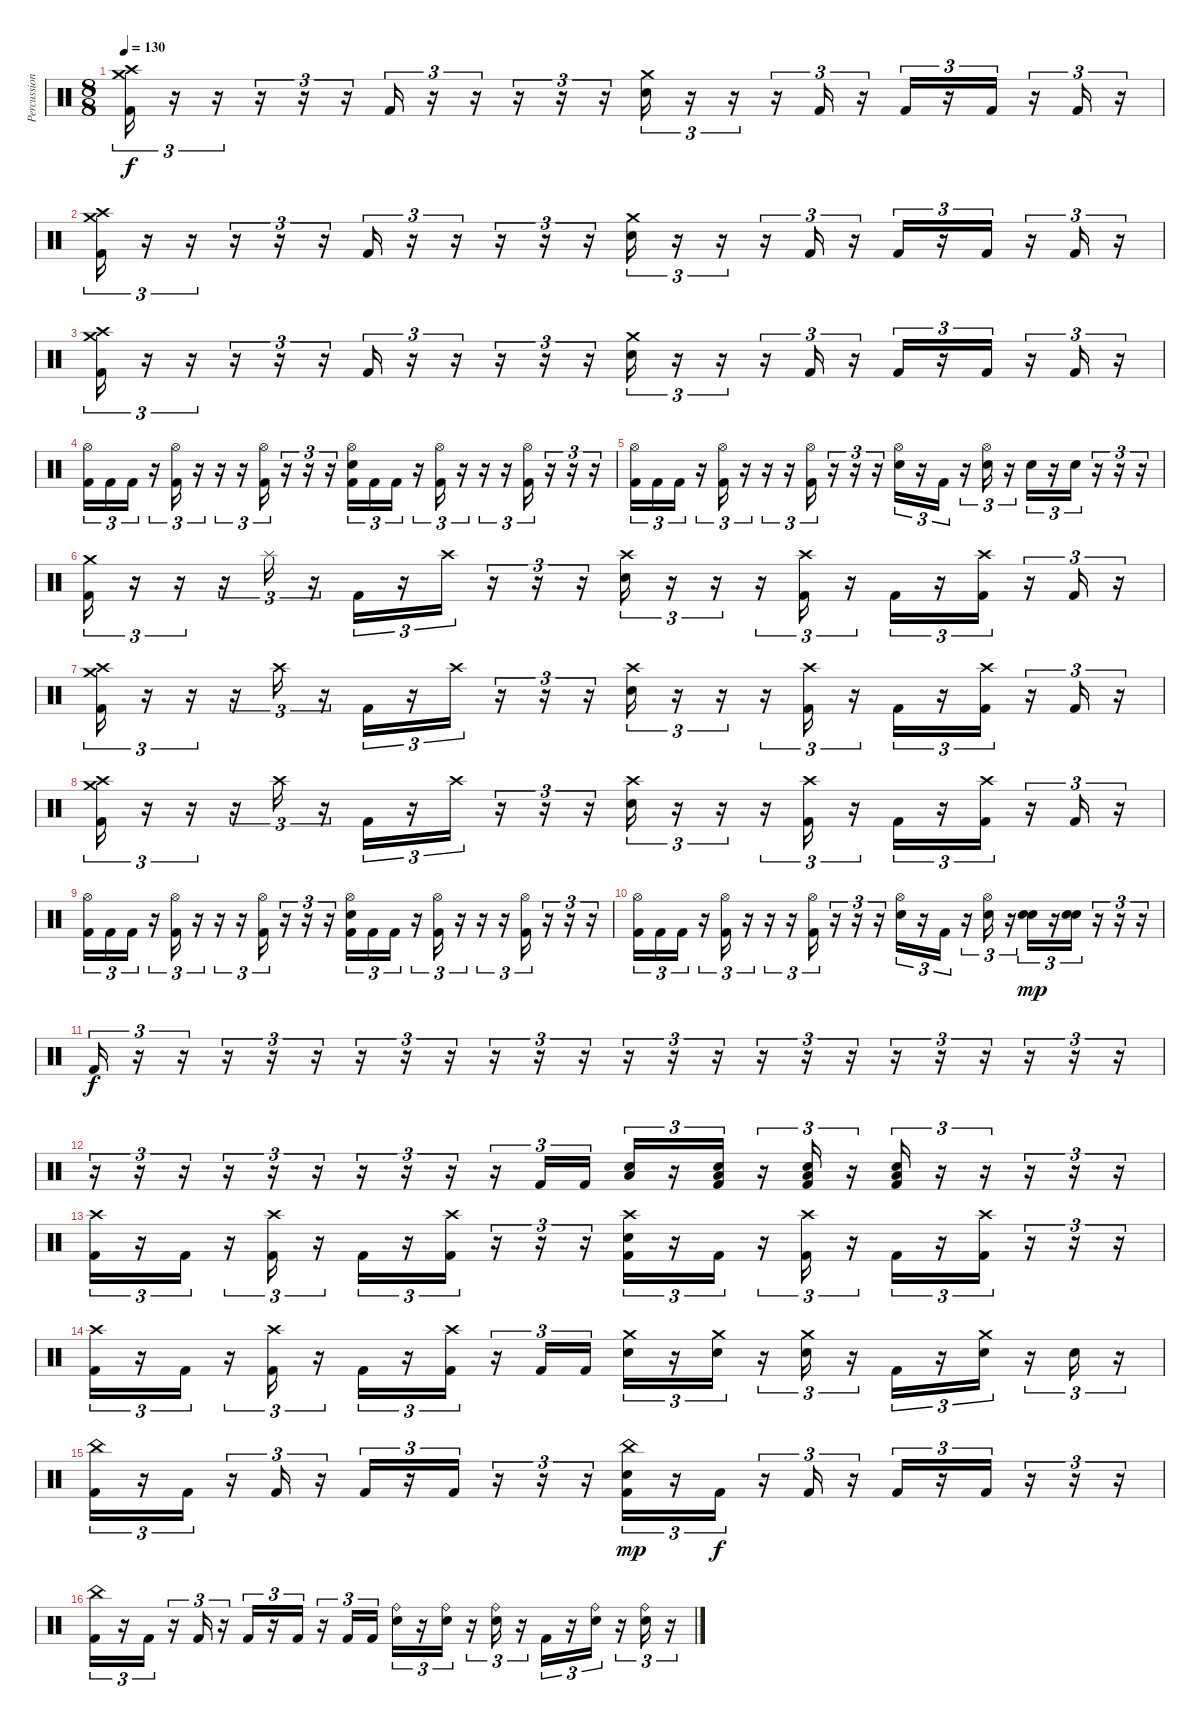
\track ("Percussion" "Percussion") {instrument percussion}
\staff {score}
\articulation defaults
\ts (8 8)
\tempo 130
\clef neutral
\ks c
("Crash high (hit)" "Crash medium (hit)" "Kick (hit) 2").16{tu (3 2) dy f} r.16{tu (3 2)} r.16{tu (3 2)} r.16{tu (3 2)} r.16{tu (3 2)} r.16{tu (3 2)} "Kick (hit) 2".16{tu (3 2)} r.16{tu (3 2)} r.16{tu (3 2)} r.16{tu (3 2)} r.16{tu (3 2)} r.16{tu (3 2)} ("Crash medium (hit)" "Snare (hit) 2").16{tu (3 2)} r.16{tu (3 2)} r.16{tu (3 2)} r.16{tu (3 2)} "Kick (hit) 2".16{tu (3 2)} r.16{tu (3 2)} "Kick (hit) 2".16{tu (3 2)} r.16{tu (3 2)} "Kick (hit) 2".16{tu (3 2)} r.16{tu (3 2)} "Kick (hit) 2".16{tu (3 2)} r.16{tu (3 2)} |
("Crash high (hit)" "Crash medium (hit)" "Kick (hit) 2").16{tu (3 2)} r.16{tu (3 2)} r.16{tu (3 2)} r.16{tu (3 2)} r.16{tu (3 2)} r.16{tu (3 2)} "Kick (hit) 2".16{tu (3 2)} r.16{tu (3 2)} r.16{tu (3 2)} r.16{tu (3 2)} r.16{tu (3 2)} r.16{tu (3 2)} ("Crash medium (hit)" "Snare (hit) 2").16{tu (3 2)} r.16{tu (3 2)} r.16{tu (3 2)} r.16{tu (3 2)} "Kick (hit) 2".16{tu (3 2)} r.16{tu (3 2)} "Kick (hit) 2".16{tu (3 2)} r.16{tu (3 2)} "Kick (hit) 2".16{tu (3 2)} r.16{tu (3 2)} "Kick (hit) 2".16{tu (3 2)} r.16{tu (3 2)} |
("Crash high (hit)" "Crash medium (hit)" "Kick (hit) 2").16{tu (3 2)} r.16{tu (3 2)} r.16{tu (3 2)} r.16{tu (3 2)} r.16{tu (3 2)} r.16{tu (3 2)} "Kick (hit) 2".16{tu (3 2)} r.16{tu (3 2)} r.16{tu (3 2)} r.16{tu (3 2)} r.16{tu (3 2)} r.16{tu (3 2)} ("Crash medium (hit)" "Snare (hit) 2").16{tu (3 2)} r.16{tu (3 2)} r.16{tu (3 2)} r.16{tu (3 2)} "Kick (hit) 2".16{tu (3 2)} r.16{tu (3 2)} "Kick (hit) 2".16{tu (3 2)} r.16{tu (3 2)} "Kick (hit) 2".16{tu (3 2)} r.16{tu (3 2)} "Kick (hit) 2".16{tu (3 2)} r.16{tu (3 2)} |
("Hi-Hat (open)" "Kick (hit) 2").16{tu (3 2)} "Kick (hit) 2".16{tu (3 2)} "Kick (hit) 2".16{tu (3 2)} r.16{tu (3 2)} ("Hi-Hat (open)" "Kick (hit) 2").16{tu (3 2)} r.16{tu (3 2)} r.16{tu (3 2)} r.16{tu (3 2)} ("Hi-Hat (open)" "Kick (hit) 2").16{tu (3 2)} r.16{tu (3 2)} r.16{tu (3 2)} r.16{tu (3 2)} ("Hi-Hat (open)" "Snare (hit) 2" "Kick (hit) 2").16{tu (3 2)} "Kick (hit) 2".16{tu (3 2)} "Kick (hit) 2".16{tu (3 2)} r.16{tu (3 2)} ("Hi-Hat (open)" "Kick (hit) 2").16{tu (3 2)} r.16{tu (3 2)} r.16{tu (3 2)} r.16{tu (3 2)} ("Hi-Hat (open)" "Kick (hit) 2").16{tu (3 2)} r.16{tu (3 2)} r.16{tu (3 2)} r.16{tu (3 2)} |
("Hi-Hat (open)" "Kick (hit) 2").16{tu (3 2)} "Kick (hit) 2".16{tu (3 2)} "Kick (hit) 2".16{tu (3 2)} r.16{tu (3 2)} ("Hi-Hat (open)" "Kick (hit) 2").16{tu (3 2)} r.16{tu (3 2)} r.16{tu (3 2)} r.16{tu (3 2)} ("Hi-Hat (open)" "Kick (hit) 2").16{tu (3 2)} r.16{tu (3 2)} r.16{tu (3 2)} r.16{tu (3 2)} ("Hi-Hat (open)" "Snare (hit) 2").16{tu (3 2)} r.16{tu (3 2)} "Kick (hit) 2".16{tu (3 2)} r.16{tu (3 2)} ("Hi-Hat (open)" "Snare (hit) 2").16{tu (3 2)} r.16{tu (3 2)} "Snare (hit) 2".16{tu (3 2)} r.16{tu (3 2)} "Snare (hit) 2".16{tu (3 2)} r.16{tu (3 2)} r.16{tu (3 2)} r.16{tu (3 2)} |
("Crash medium (hit)" "Kick (hit) 2").16{tu (3 2)} r.16{tu (3 2)} r.16{tu (3 2)} r.16{tu (3 2)} "Splash (hit)".16{tu (3 2)} r.16{tu (3 2)} "Kick (hit) 2".16{tu (3 2)} r.16{tu (3 2)} "Crash high (hit)".16{tu (3 2)} r.16{tu (3 2)} r.16{tu (3 2)} r.16{tu (3 2)} ("Crash high (hit)" "Snare (hit) 2").16{tu (3 2)} r.16{tu (3 2)} r.16{tu (3 2)} r.16{tu (3 2)} ("Crash high (hit)" "Kick (hit) 2").16{tu (3 2)} r.16{tu (3 2)} "Kick (hit) 2".16{tu (3 2)} r.16{tu (3 2)} ("Crash high (hit)" "Kick (hit) 2").16{tu (3 2)} r.16{tu (3 2)} "Kick (hit) 2".16{tu (3 2)} r.16{tu (3 2)} |
("Crash high (hit)" "Crash medium (hit)" "Kick (hit) 2").16{tu (3 2)} r.16{tu (3 2)} r.16{tu (3 2)} r.16{tu (3 2)} "Crash high (hit)".16{tu (3 2)} r.16{tu (3 2)} "Kick (hit) 2".16{tu (3 2)} r.16{tu (3 2)} "Crash high (hit)".16{tu (3 2)} r.16{tu (3 2)} r.16{tu (3 2)} r.16{tu (3 2)} ("Crash high (hit)" "Snare (hit) 2").16{tu (3 2)} r.16{tu (3 2)} r.16{tu (3 2)} r.16{tu (3 2)} ("Crash high (hit)" "Kick (hit) 2").16{tu (3 2)} r.16{tu (3 2)} "Kick (hit) 2".16{tu (3 2)} r.16{tu (3 2)} ("Crash high (hit)" "Kick (hit) 2").16{tu (3 2)} r.16{tu (3 2)} "Kick (hit) 2".16{tu (3 2)} r.16{tu (3 2)} |
("Crash high (hit)" "Crash medium (hit)" "Kick (hit) 2").16{tu (3 2)} r.16{tu (3 2)} r.16{tu (3 2)} r.16{tu (3 2)} "Crash high (hit)".16{tu (3 2)} r.16{tu (3 2)} "Kick (hit) 2".16{tu (3 2)} r.16{tu (3 2)} "Crash high (hit)".16{tu (3 2)} r.16{tu (3 2)} r.16{tu (3 2)} r.16{tu (3 2)} ("Crash high (hit)" "Snare (hit) 2").16{tu (3 2)} r.16{tu (3 2)} r.16{tu (3 2)} r.16{tu (3 2)} ("Crash high (hit)" "Kick (hit) 2").16{tu (3 2)} r.16{tu (3 2)} "Kick (hit) 2".16{tu (3 2)} r.16{tu (3 2)} ("Crash high (hit)" "Kick (hit) 2").16{tu (3 2)} r.16{tu (3 2)} "Kick (hit) 2".16{tu (3 2)} r.16{tu (3 2)} |
("Hi-Hat (open)" "Kick (hit) 2").16{tu (3 2)} "Kick (hit) 2".16{tu (3 2)} "Kick (hit) 2".16{tu (3 2)} r.16{tu (3 2)} ("Hi-Hat (open)" "Kick (hit) 2").16{tu (3 2)} r.16{tu (3 2)} r.16{tu (3 2)} r.16{tu (3 2)} ("Hi-Hat (open)" "Kick (hit) 2").16{tu (3 2)} r.16{tu (3 2)} r.16{tu (3 2)} r.16{tu (3 2)} ("Hi-Hat (open)" "Snare (hit) 2" "Kick (hit) 2").16{tu (3 2)} "Kick (hit) 2".16{tu (3 2)} "Kick (hit) 2".16{tu (3 2)} r.16{tu (3 2)} ("Hi-Hat (open)" "Kick (hit) 2").16{tu (3 2)} r.16{tu (3 2)} r.16{tu (3 2)} r.16{tu (3 2)} ("Hi-Hat (open)" "Kick (hit) 2").16{tu (3 2)} r.16{tu (3 2)} r.16{tu (3 2)} r.16{tu (3 2)} |
("Hi-Hat (open)" "Kick (hit) 2").16{tu (3 2)} "Kick (hit) 2".16{tu (3 2)} "Kick (hit) 2".16{tu (3 2)} r.16{tu (3 2)} ("Hi-Hat (open)" "Kick (hit) 2").16{tu (3 2)} r.16{tu (3 2)} r.16{tu (3 2)} r.16{tu (3 2)} ("Hi-Hat (open)" "Kick (hit) 2").16{tu (3 2)} r.16{tu (3 2)} r.16{tu (3 2)} r.16{tu (3 2)} ("Hi-Hat (open)" "Snare (hit) 2").16{tu (3 2)} r.16{tu (3 2)} "Kick (hit) 2".16{tu (3 2)} r.16{tu (3 2)} ("Hi-Hat (open)" "Snare (hit) 2").16{tu (3 2)} r.16{tu (3 2)} ("Snare (hit) 2" "Snare (hit) 2").16{tu (3 2) dy mp} r.16{tu (3 2)} ("Snare (hit) 2" "Snare (hit) 2").16{tu (3 2)} r.16{tu (3 2)} r.16{tu (3 2)} r.16{tu (3 2)} |
"Kick (hit) 2".16{tu (3 2) dy f} r.16{tu (3 2)} r.16{tu (3 2)} r.16{tu (3 2)} r.16{tu (3 2)} r.16{tu (3 2)} r.16{tu (3 2)} r.16{tu (3 2)} r.16{tu (3 2)} r.16{tu (3 2)} r.16{tu (3 2)} r.16{tu (3 2)} r.16{tu (3 2)} r.16{tu (3 2)} r.16{tu (3 2)} r.16{tu (3 2)} r.16{tu (3 2)} r.16{tu (3 2)} r.16{tu (3 2)} r.16{tu (3 2)} r.16{tu (3 2)} r.16{tu (3 2)} r.16{tu (3 2)} r.16{tu (3 2)} |
r.16{tu (3 2)} r.16{tu (3 2)} r.16{tu (3 2)} r.16{tu (3 2)} r.16{tu (3 2)} r.16{tu (3 2)} r.16{tu (3 2)} r.16{tu (3 2)} r.16{tu (3 2)} r.16{tu (3 2)} "Kick (hit) 2".16{tu (3 2)} "Kick (hit) 2".16{tu (3 2)} ("Low Floor Tom (hit)" "Snare (hit) 2").16{tu (3 2)} r.16{tu (3 2)} ("Low Floor Tom (hit)" "Snare (hit) 2" "Kick (hit) 2").16{tu (3 2)} r.16{tu (3 2)} ("Low Floor Tom (hit)" "Snare (hit) 2" "Kick (hit) 2").16{tu (3 2)} r.16{tu (3 2)} ("Low Floor Tom (hit)" "Snare (hit) 2" "Kick (hit) 2").16{tu (3 2)} r.16{tu (3 2)} r.16{tu (3 2)} r.16{tu (3 2)} r.16{tu (3 2)} r.16{tu (3 2)} |
("Crash high (hit)" "Kick (hit) 2").16{tu (3 2)} r.16{tu (3 2)} "Kick (hit) 2".16{tu (3 2)} r.16{tu (3 2)} ("Crash high (hit)" "Kick (hit) 2").16{tu (3 2)} r.16{tu (3 2)} "Kick (hit) 2".16{tu (3 2)} r.16{tu (3 2)} ("Crash high (hit)" "Kick (hit) 2").16{tu (3 2)} r.16{tu (3 2)} r.16{tu (3 2)} r.16{tu (3 2)} ("Crash high (hit)" "Snare (hit) 2" "Kick (hit) 2").16{tu (3 2)} r.16{tu (3 2)} "Kick (hit) 2".16{tu (3 2)} r.16{tu (3 2)} ("Crash high (hit)" "Kick (hit) 2").16{tu (3 2)} r.16{tu (3 2)} "Kick (hit) 2".16{tu (3 2)} r.16{tu (3 2)} ("Crash high (hit)" "Kick (hit) 2").16{tu (3 2)} r.16{tu (3 2)} r.16{tu (3 2)} r.16{tu (3 2)} |
("Crash high (hit)" "Kick (hit) 2").16{tu (3 2)} r.16{tu (3 2)} "Kick (hit) 2".16{tu (3 2)} r.16{tu (3 2)} ("Crash high (hit)" "Kick (hit) 2").16{tu (3 2)} r.16{tu (3 2)} "Kick (hit) 2".16{tu (3 2)} r.16{tu (3 2)} ("Crash high (hit)" "Kick (hit) 2").16{tu (3 2)} r.16{tu (3 2)} "Kick (hit) 2".16{tu (3 2)} "Kick (hit) 2".16{tu (3 2)} ("Crash medium (hit)" "Snare (hit) 2").16{tu (3 2)} r.16{tu (3 2)} ("Crash medium (hit)" "Snare (hit) 2").16{tu (3 2)} r.16{tu (3 2)} ("Crash medium (hit)" "Snare (hit) 2").16{tu (3 2)} r.16{tu (3 2)} "Kick (hit) 2".16{tu (3 2)} r.16{tu (3 2)} ("Crash medium (hit)" "Snare (hit) 2").16{tu (3 2)} r.16{tu (3 2)} "Snare (hit) 2".16{tu (3 2)} r.16{tu (3 2)} |
("China (hit)" "Kick (hit) 2").16{tu (3 2)} r.16{tu (3 2)} "Kick (hit) 2".16{tu (3 2)} r.16{tu (3 2)} "Kick (hit) 2".16{tu (3 2)} r.16{tu (3 2)} "Kick (hit) 2".16{tu (3 2)} r.16{tu (3 2)} "Kick (hit) 2".16{tu (3 2)} r.16{tu (3 2)} r.16{tu (3 2)} r.16{tu (3 2)} ("China (hit)" "Snare (hit) 2" "Kick (hit) 2").16{tu (3 2) dy mp} r.16{tu (3 2)} "Kick (hit) 2".16{tu (3 2) dy f} r.16{tu (3 2)} "Kick (hit) 2".16{tu (3 2)} r.16{tu (3 2)} "Kick (hit) 2".16{tu (3 2)} r.16{tu (3 2)} "Kick (hit) 2".16{tu (3 2)} r.16{tu (3 2)} r.16{tu (3 2)} r.16{tu (3 2)} |
("China (hit)" "Kick (hit) 2").16{tu (3 2)} r.16{tu (3 2)} "Kick (hit) 2".16{tu (3 2)} r.16{tu (3 2)} "Kick (hit) 2".16{tu (3 2)} r.16{tu (3 2)} "Kick (hit) 2".16{tu (3 2)} r.16{tu (3 2)} "Kick (hit) 2".16{tu (3 2)} r.16{tu (3 2)} "Kick (hit) 2".16{tu (3 2)} "Kick (hit) 2".16{tu (3 2)} ("Ride (bell)" "Snare (hit) 2").16{tu (3 2)} r.16{tu (3 2)} ("Ride (bell)" "Snare (hit) 2").16{tu (3 2)} r.16{tu (3 2)} ("Ride (bell)" "Snare (hit) 2").16{tu (3 2)} r.16{tu (3 2)} "Kick (hit) 2".16{tu (3 2)} r.16{tu (3 2)} ("Ride (bell)" "Snare (hit) 2").16{tu (3 2)} r.16{tu (3 2)} ("Ride (bell)" "Snare (hit) 2").16{tu (3 2)} r.16{tu (3 2)}
